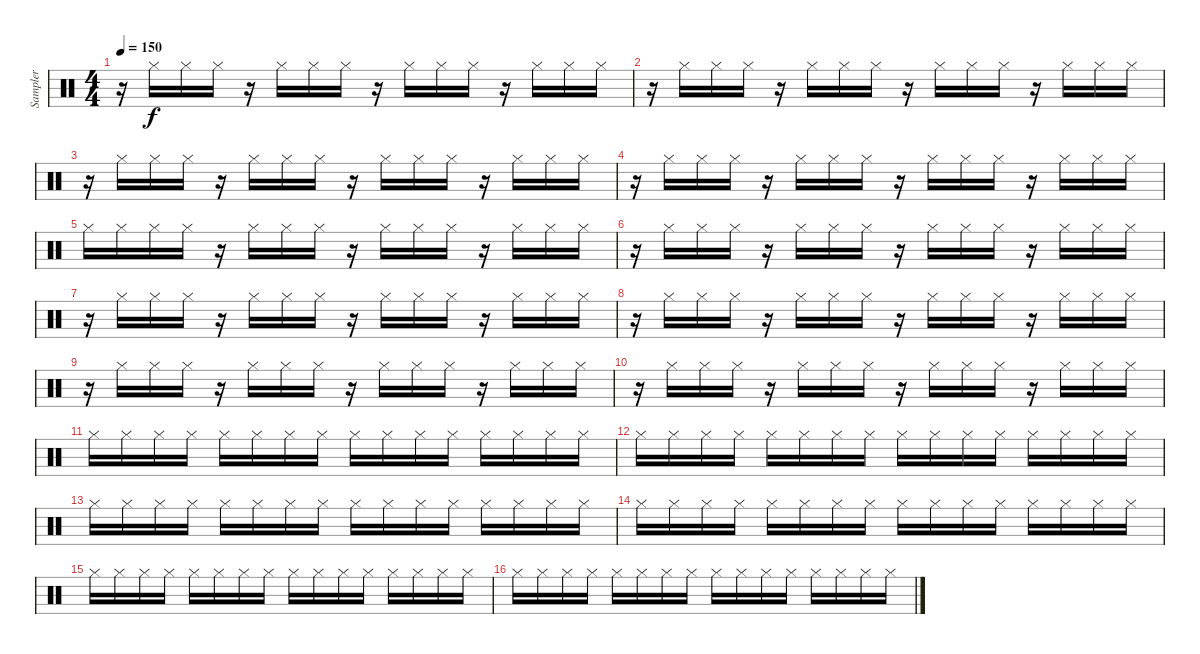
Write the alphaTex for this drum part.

\track ("Sampler" "Sampler") {instrument percussion}
\staff {score}
\articulation defaults
\ts (4 4)
\tempo 150
\clef neutral
\ks c
r.16{dy f} "Hi-Hat (closed)".16 "Hi-Hat (closed)".16 "Hi-Hat (closed)".16 r.16 "Hi-Hat (closed)".16 "Hi-Hat (closed)".16 "Hi-Hat (closed)".16 r.16 "Hi-Hat (closed)".16 "Hi-Hat (closed)".16 "Hi-Hat (closed)".16 r.16 "Hi-Hat (closed)".16 "Hi-Hat (closed)".16 "Hi-Hat (closed)".16 |
r.16 "Hi-Hat (closed)".16 "Hi-Hat (closed)".16 "Hi-Hat (closed)".16 r.16 "Hi-Hat (closed)".16 "Hi-Hat (closed)".16 "Hi-Hat (closed)".16 r.16 "Hi-Hat (closed)".16 "Hi-Hat (closed)".16 "Hi-Hat (closed)".16 r.16 "Hi-Hat (closed)".16 "Hi-Hat (closed)".16 "Hi-Hat (closed)".16 |
r.16 "Hi-Hat (closed)".16 "Hi-Hat (closed)".16 "Hi-Hat (closed)".16 r.16 "Hi-Hat (closed)".16 "Hi-Hat (closed)".16 "Hi-Hat (closed)".16 r.16 "Hi-Hat (closed)".16 "Hi-Hat (closed)".16 "Hi-Hat (closed)".16 r.16 "Hi-Hat (closed)".16 "Hi-Hat (closed)".16 "Hi-Hat (closed)".16 |
r.16 "Hi-Hat (closed)".16 "Hi-Hat (closed)".16 "Hi-Hat (closed)".16 r.16 "Hi-Hat (closed)".16 "Hi-Hat (closed)".16 "Hi-Hat (closed)".16 r.16 "Hi-Hat (closed)".16 "Hi-Hat (closed)".16 "Hi-Hat (closed)".16 r.16 "Hi-Hat (closed)".16 "Hi-Hat (closed)".16 "Hi-Hat (closed)".16 |
"Hi-Hat (closed)".16 "Hi-Hat (closed)".16 "Hi-Hat (closed)".16 "Hi-Hat (closed)".16 r.16 "Hi-Hat (closed)".16 "Hi-Hat (closed)".16 "Hi-Hat (closed)".16 r.16 "Hi-Hat (closed)".16 "Hi-Hat (closed)".16 "Hi-Hat (closed)".16 r.16 "Hi-Hat (closed)".16 "Hi-Hat (closed)".16 "Hi-Hat (closed)".16 |
r.16 "Hi-Hat (closed)".16 "Hi-Hat (closed)".16 "Hi-Hat (closed)".16 r.16 "Hi-Hat (closed)".16 "Hi-Hat (closed)".16 "Hi-Hat (closed)".16 r.16 "Hi-Hat (closed)".16 "Hi-Hat (closed)".16 "Hi-Hat (closed)".16 r.16 "Hi-Hat (closed)".16 "Hi-Hat (closed)".16 "Hi-Hat (closed)".16 |
r.16 "Hi-Hat (closed)".16 "Hi-Hat (closed)".16 "Hi-Hat (closed)".16 r.16 "Hi-Hat (closed)".16 "Hi-Hat (closed)".16 "Hi-Hat (closed)".16 r.16 "Hi-Hat (closed)".16 "Hi-Hat (closed)".16 "Hi-Hat (closed)".16 r.16 "Hi-Hat (closed)".16 "Hi-Hat (closed)".16 "Hi-Hat (closed)".16 |
r.16 "Hi-Hat (closed)".16 "Hi-Hat (closed)".16 "Hi-Hat (closed)".16 r.16 "Hi-Hat (closed)".16 "Hi-Hat (closed)".16 "Hi-Hat (closed)".16 r.16 "Hi-Hat (closed)".16 "Hi-Hat (closed)".16 "Hi-Hat (closed)".16 r.16 "Hi-Hat (closed)".16 "Hi-Hat (closed)".16 "Hi-Hat (closed)".16 |
r.16 "Hi-Hat (closed)".16 "Hi-Hat (closed)".16 "Hi-Hat (closed)".16 r.16 "Hi-Hat (closed)".16 "Hi-Hat (closed)".16 "Hi-Hat (closed)".16 r.16 "Hi-Hat (closed)".16 "Hi-Hat (closed)".16 "Hi-Hat (closed)".16 r.16 "Hi-Hat (closed)".16 "Hi-Hat (closed)".16 "Hi-Hat (closed)".16 |
r.16 "Hi-Hat (closed)".16 "Hi-Hat (closed)".16 "Hi-Hat (closed)".16 r.16 "Hi-Hat (closed)".16 "Hi-Hat (closed)".16 "Hi-Hat (closed)".16 r.16 "Hi-Hat (closed)".16 "Hi-Hat (closed)".16 "Hi-Hat (closed)".16 r.16 "Hi-Hat (closed)".16 "Hi-Hat (closed)".16 "Hi-Hat (closed)".16 |
"Hi-Hat (closed)".16 "Hi-Hat (closed)".16 "Hi-Hat (closed)".16 "Hi-Hat (closed)".16 "Hi-Hat (closed)".16 "Hi-Hat (closed)".16 "Hi-Hat (closed)".16 "Hi-Hat (closed)".16 "Hi-Hat (closed)".16 "Hi-Hat (closed)".16 "Hi-Hat (closed)".16 "Hi-Hat (closed)".16 "Hi-Hat (closed)".16 "Hi-Hat (closed)".16 "Hi-Hat (closed)".16 "Hi-Hat (closed)".16 |
"Hi-Hat (closed)".16 "Hi-Hat (closed)".16 "Hi-Hat (closed)".16 "Hi-Hat (closed)".16 "Hi-Hat (closed)".16 "Hi-Hat (closed)".16 "Hi-Hat (closed)".16 "Hi-Hat (closed)".16 "Hi-Hat (closed)".16 "Hi-Hat (closed)".16 "Hi-Hat (closed)".16 "Hi-Hat (closed)".16 "Hi-Hat (closed)".16 "Hi-Hat (closed)".16 "Hi-Hat (closed)".16 "Hi-Hat (closed)".16 |
"Hi-Hat (closed)".16 "Hi-Hat (closed)".16 "Hi-Hat (closed)".16 "Hi-Hat (closed)".16 "Hi-Hat (closed)".16 "Hi-Hat (closed)".16 "Hi-Hat (closed)".16 "Hi-Hat (closed)".16 "Hi-Hat (closed)".16 "Hi-Hat (closed)".16 "Hi-Hat (closed)".16 "Hi-Hat (closed)".16 "Hi-Hat (closed)".16 "Hi-Hat (closed)".16 "Hi-Hat (closed)".16 "Hi-Hat (closed)".16 |
"Hi-Hat (closed)".16 "Hi-Hat (closed)".16 "Hi-Hat (closed)".16 "Hi-Hat (closed)".16 "Hi-Hat (closed)".16 "Hi-Hat (closed)".16 "Hi-Hat (closed)".16 "Hi-Hat (closed)".16 "Hi-Hat (closed)".16 "Hi-Hat (closed)".16 "Hi-Hat (closed)".16 "Hi-Hat (closed)".16 "Hi-Hat (closed)".16 "Hi-Hat (closed)".16 "Hi-Hat (closed)".16 "Hi-Hat (closed)".16 |
"Hi-Hat (closed)".16 "Hi-Hat (closed)".16 "Hi-Hat (closed)".16 "Hi-Hat (closed)".16 "Hi-Hat (closed)".16 "Hi-Hat (closed)".16 "Hi-Hat (closed)".16 "Hi-Hat (closed)".16 "Hi-Hat (closed)".16 "Hi-Hat (closed)".16 "Hi-Hat (closed)".16 "Hi-Hat (closed)".16 "Hi-Hat (closed)".16 "Hi-Hat (closed)".16 "Hi-Hat (closed)".16 "Hi-Hat (closed)".16 |
"Hi-Hat (closed)".16 "Hi-Hat (closed)".16 "Hi-Hat (closed)".16 "Hi-Hat (closed)".16 "Hi-Hat (closed)".16 "Hi-Hat (closed)".16 "Hi-Hat (closed)".16 "Hi-Hat (closed)".16 "Hi-Hat (closed)".16 "Hi-Hat (closed)".16 "Hi-Hat (closed)".16 "Hi-Hat (closed)".16 "Hi-Hat (closed)".16 "Hi-Hat (closed)".16 "Hi-Hat (closed)".16 "Hi-Hat (closed)".16
